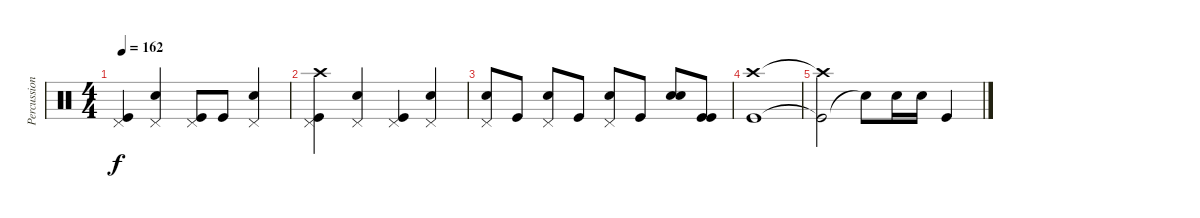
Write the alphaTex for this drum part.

\track ("Percussioni" "Percussion") {instrument percussion}
\staff {score}
\articulation defaults
\ts (4 4)
\tempo 162
\clef neutral
\ks c
("Pedal Hi-Hat (hit)" "Kick (hit)").4{dy f} ("Pedal Hi-Hat (hit)" "Snare (hit) 2").4 ("Pedal Hi-Hat (hit)" "Kick (hit)").8 "Kick (hit)".8 ("Pedal Hi-Hat (hit)" "Snare (hit) 2").4 |
("Pedal Hi-Hat (hit)" "Kick (hit)" "Crash high (hit)").4 ("Pedal Hi-Hat (hit)" "Snare (hit) 2").4 ("Pedal Hi-Hat (hit)" "Kick (hit)").4 ("Pedal Hi-Hat (hit)" "Snare (hit) 2").4 |
("Pedal Hi-Hat (hit)" "Snare (hit) 2").8 "Kick (hit)".8 ("Pedal Hi-Hat (hit)" "Snare (hit) 2").8 "Kick (hit)".8 ("Pedal Hi-Hat (hit)" "Snare (hit) 2").8 "Kick (hit)".8 ("Snare (hit) 2" "Snare (hit) 2").8 ("Kick (hit)" "Kick (hit)").8 |
("Kick (hit)" "Crash high (hit)").1 |
("Kick (hit)"{t} "Crash high (hit)"{t}).2 "Snare (hit) 2"{t}.8 "Snare (hit) 2".16 "Snare (hit) 2".16 "Kick (hit)".4
